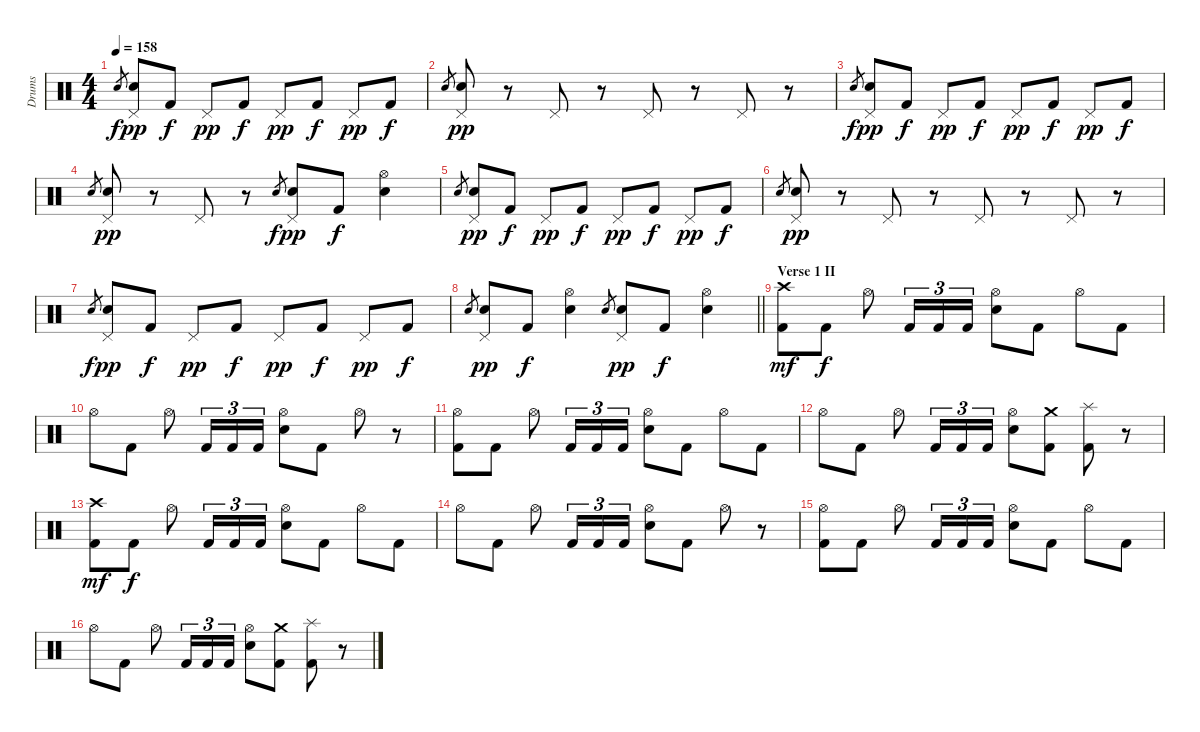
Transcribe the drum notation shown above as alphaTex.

\track ("Drums" "Drums") {instrument percussion}
\staff {score}
\articulation defaults
\ts (4 4)
\tempo 158
\clef neutral
\ks c "Snare (hit) 2".8{gr dy f}
("Pedal Hi-Hat (hit)" "Snare (hit) 2").8{dy pp} "Kick (hit) 2".8{dy f} "Pedal Hi-Hat (hit)".8{dy pp} "Kick (hit) 2".8{dy f} "Pedal Hi-Hat (hit)".8{dy pp} "Kick (hit) 2".8{dy f} "Pedal Hi-Hat (hit)".8{dy pp} "Kick (hit) 2".8{dy f} |
"Snare (hit) 2".8{gr} ("Pedal Hi-Hat (hit)" "Snare (hit) 2").8{dy pp} r.8 "Pedal Hi-Hat (hit)".8 r.8 "Pedal Hi-Hat (hit)".8 r.8 "Pedal Hi-Hat (hit)".8 r.8 |
"Snare (hit) 2".8{gr dy f} ("Pedal Hi-Hat (hit)" "Snare (hit) 2").8{dy pp} "Kick (hit) 2".8{dy f} "Pedal Hi-Hat (hit)".8{dy pp} "Kick (hit) 2".8{dy f} "Pedal Hi-Hat (hit)".8{dy pp} "Kick (hit) 2".8{dy f} "Pedal Hi-Hat (hit)".8{dy pp} "Kick (hit) 2".8{dy f} |
"Snare (hit) 2".8{gr} ("Pedal Hi-Hat (hit)" "Snare (hit) 2").8{dy pp} r.8 "Pedal Hi-Hat (hit)".8 r.8 "Snare (hit) 2".8{gr dy f} ("Pedal Hi-Hat (hit)" "Snare (hit) 2").8{dy pp} "Kick (hit) 2".8{dy f} ("Hi-Hat (open)" "Snare (hit) 2").4 |
"Snare (hit) 2".8{gr} ("Pedal Hi-Hat (hit)" "Snare (hit) 2").8{dy pp} "Kick (hit) 2".8{dy f} "Pedal Hi-Hat (hit)".8{dy pp} "Kick (hit) 2".8{dy f} "Pedal Hi-Hat (hit)".8{dy pp} "Kick (hit) 2".8{dy f} "Pedal Hi-Hat (hit)".8{dy pp} "Kick (hit) 2".8{dy f} |
"Snare (hit) 2".8{gr} ("Pedal Hi-Hat (hit)" "Snare (hit) 2").8{dy pp} r.8 "Pedal Hi-Hat (hit)".8 r.8 "Pedal Hi-Hat (hit)".8 r.8 "Pedal Hi-Hat (hit)".8 r.8 |
"Snare (hit) 2".8{gr dy f} ("Pedal Hi-Hat (hit)" "Snare (hit) 2").8{dy pp} "Kick (hit) 2".8{dy f} "Pedal Hi-Hat (hit)".8{dy pp} "Kick (hit) 2".8{dy f} "Pedal Hi-Hat (hit)".8{dy pp} "Kick (hit) 2".8{dy f} "Pedal Hi-Hat (hit)".8{dy pp} "Kick (hit) 2".8{dy f} |
\barLineRight lightlight "Snare (hit) 2".8{gr}
("Pedal Hi-Hat (hit)" "Snare (hit) 2").8{dy pp} "Kick (hit) 2".8{dy f} ("Hi-Hat (open)" "Snare (hit) 2").4 "Snare (hit) 2".8{gr} ("Pedal Hi-Hat (hit)" "Snare (hit) 2").8{dy pp} "Kick (hit) 2".8{dy f} ("Hi-Hat (open)" "Snare (hit) 2").4 |
\section ("" "Verse 1 II")
("Crash high (hit)" "Kick (hit) 2").8{dy mf} "Kick (hit) 2".8{dy f} "Hi-Hat (open)".8 "Kick (hit) 2".16{tu (3 2)} "Kick (hit) 2".16{tu (3 2)} "Kick (hit) 2".16{tu (3 2)} ("Hi-Hat (open)" "Snare (hit) 2").8 "Kick (hit) 2".8 "Hi-Hat (open)".8 "Kick (hit) 2".8 |
"Hi-Hat (open)".8 "Kick (hit) 2".8 "Hi-Hat (open)".8 "Kick (hit) 2".16{tu (3 2)} "Kick (hit) 2".16{tu (3 2)} "Kick (hit) 2".16{tu (3 2)} ("Hi-Hat (open)" "Snare (hit) 2").8 "Kick (hit) 2".8 "Hi-Hat (open)".8 r.8 |
("Hi-Hat (open)" "Kick (hit) 2").8 "Kick (hit) 2".8 "Hi-Hat (open)".8 "Kick (hit) 2".16{tu (3 2)} "Kick (hit) 2".16{tu (3 2)} "Kick (hit) 2".16{tu (3 2)} ("Hi-Hat (open)" "Snare (hit) 2").8 "Kick (hit) 2".8 "Hi-Hat (open)".8 "Kick (hit) 2".8 |
"Hi-Hat (open)".8 "Kick (hit) 2".8 "Hi-Hat (open)".8 "Kick (hit) 2".16{tu (3 2)} "Kick (hit) 2".16{tu (3 2)} "Kick (hit) 2".16{tu (3 2)} ("Hi-Hat (open)" "Snare (hit) 2").8 ("Crash medium (hit)" "Kick (hit) 2").8 ("Splash (hit)" "Kick (hit) 2").8 r.8 |
("Crash high (hit)" "Kick (hit) 2").8{dy mf} "Kick (hit) 2".8{dy f} "Hi-Hat (open)".8 "Kick (hit) 2".16{tu (3 2)} "Kick (hit) 2".16{tu (3 2)} "Kick (hit) 2".16{tu (3 2)} ("Hi-Hat (open)" "Snare (hit) 2").8 "Kick (hit) 2".8 "Hi-Hat (open)".8 "Kick (hit) 2".8 |
"Hi-Hat (open)".8 "Kick (hit) 2".8 "Hi-Hat (open)".8 "Kick (hit) 2".16{tu (3 2)} "Kick (hit) 2".16{tu (3 2)} "Kick (hit) 2".16{tu (3 2)} ("Hi-Hat (open)" "Snare (hit) 2").8 "Kick (hit) 2".8 "Hi-Hat (open)".8 r.8 |
("Hi-Hat (open)" "Kick (hit) 2").8 "Kick (hit) 2".8 "Hi-Hat (open)".8 "Kick (hit) 2".16{tu (3 2)} "Kick (hit) 2".16{tu (3 2)} "Kick (hit) 2".16{tu (3 2)} ("Hi-Hat (open)" "Snare (hit) 2").8 "Kick (hit) 2".8 "Hi-Hat (open)".8 "Kick (hit) 2".8 |
"Hi-Hat (open)".8 "Kick (hit) 2".8 "Hi-Hat (open)".8 "Kick (hit) 2".16{tu (3 2)} "Kick (hit) 2".16{tu (3 2)} "Kick (hit) 2".16{tu (3 2)} ("Hi-Hat (open)" "Snare (hit) 2").8 ("Crash medium (hit)" "Kick (hit) 2").8 ("Splash (hit)" "Kick (hit) 2").8 r.8
